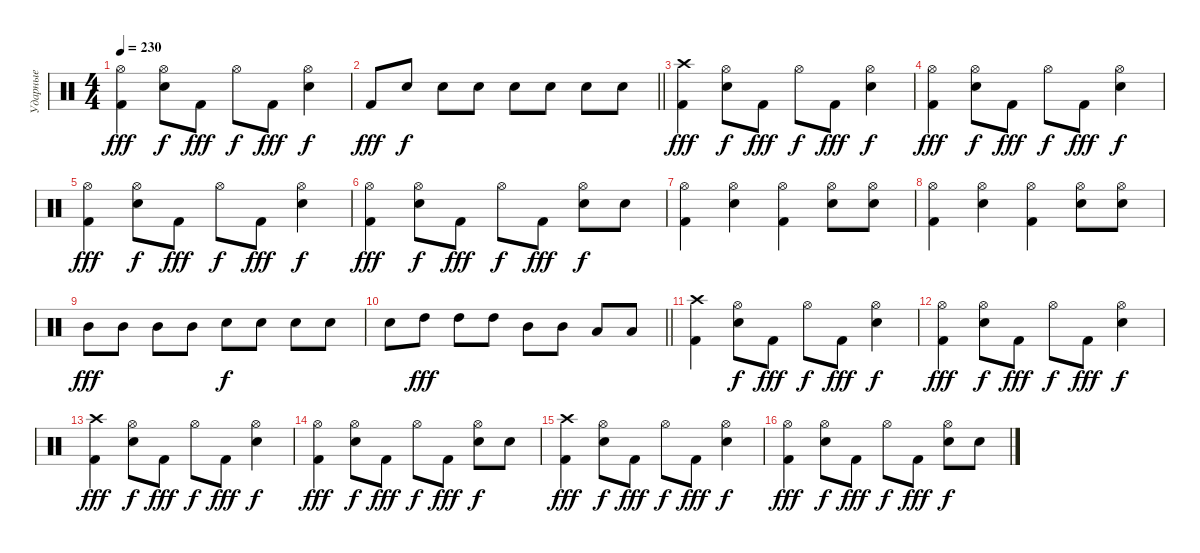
\track ("Ударные" "Ударные") {instrument percussion}
\staff
\articulation defaults
\ts (4 4)
\tempo 230
\clef neutral
\ks c
("Kick (hit) 2" "Hi-Hat (open)").4{dy fff} ("Snare (hit) 2" "Hi-Hat (open)").8{dy f} "Kick (hit) 2".8{dy fff} "Hi-Hat (open)".8{dy f} "Kick (hit) 2".8{dy fff} ("Snare (hit) 2" "Hi-Hat (open)").4{dy f} |
\barLineRight lightlight "Kick (hit) 2".8{dy fff} "Snare (hit) 2".8{dy f} "Snare (hit) 2".8 "Snare (hit) 2".8 "Snare (hit) 2".8 "Snare (hit) 2".8 "Snare (hit) 2".8 "Snare (hit) 2".8
|
("Kick (hit) 2" "Crash high (hit)").4{dy fff} ("Snare (hit) 2" "Hi-Hat (open)").8{dy f} "Kick (hit) 2".8{dy fff} "Hi-Hat (open)".8{dy f} "Kick (hit) 2".8{dy fff} ("Snare (hit) 2" "Hi-Hat (open)").4{dy f} |
("Kick (hit) 2" "Hi-Hat (open)").4{dy fff} ("Snare (hit) 2" "Hi-Hat (open)").8{dy f} "Kick (hit) 2".8{dy fff} "Hi-Hat (open)".8{dy f} "Kick (hit) 2".8{dy fff} ("Snare (hit) 2" "Hi-Hat (open)").4{dy f} |
("Kick (hit) 2" "Hi-Hat (open)").4{dy fff} ("Snare (hit) 2" "Hi-Hat (open)").8{dy f} "Kick (hit) 2".8{dy fff} "Hi-Hat (open)".8{dy f} "Kick (hit) 2".8{dy fff} ("Snare (hit) 2" "Hi-Hat (open)").4{dy f} |
("Kick (hit) 2" "Hi-Hat (open)").4{dy fff} ("Snare (hit) 2" "Hi-Hat (open)").8{dy f} "Kick (hit) 2".8{dy fff} "Hi-Hat (open)".8{dy f} "Kick (hit) 2".8{dy fff} ("Snare (hit) 2" "Hi-Hat (open)").8{dy f} "Snare (hit) 2".8 |
("Kick (hit) 2" "Hi-Hat (open)").4 ("Snare (hit) 2" "Hi-Hat (open)").4 ("Kick (hit) 2" "Hi-Hat (open)").4 ("Snare (hit) 2" "Hi-Hat (open)").8 ("Snare (hit) 2" "Hi-Hat (open)").8 |
("Kick (hit) 2" "Hi-Hat (open)").4 ("Snare (hit) 2" "Hi-Hat (open)").4 ("Kick (hit) 2" "Hi-Hat (open)").4 ("Snare (hit) 2" "Hi-Hat (open)").8 ("Snare (hit) 2" "Hi-Hat (open)").8 |
"Mid Tom (hit)".8{dy fff} "Mid Tom (hit)".8 "Mid Tom (hit)".8 "Mid Tom (hit)".8 "Snare (hit) 2".8{dy f} "Snare (hit) 2".8 "Snare (hit) 2".8 "Snare (hit) 2".8 |
\barLineRight lightlight "Snare (hit) 2".8 "High Tom (hit)".8{dy fff} "High Tom (hit)".8 "High Tom (hit)".8 "Mid Tom (hit)".8 "Mid Tom (hit)".8 "Low Tom (hit)".8 "Low Tom (hit)".8
|
("Kick (hit) 2" "Crash high (hit)").4 ("Snare (hit) 2" "Hi-Hat (open)").8{dy f} "Kick (hit) 2".8{dy fff} "Hi-Hat (open)".8{dy f} "Kick (hit) 2".8{dy fff} ("Snare (hit) 2" "Hi-Hat (open)").4{dy f} |
("Kick (hit) 2" "Hi-Hat (open)").4{dy fff} ("Snare (hit) 2" "Hi-Hat (open)").8{dy f} "Kick (hit) 2".8{dy fff} "Hi-Hat (open)".8{dy f} "Kick (hit) 2".8{dy fff} ("Snare (hit) 2" "Hi-Hat (open)").4{dy f} |
("Kick (hit) 2" "Crash high (hit)").4{dy fff} ("Snare (hit) 2" "Hi-Hat (open)").8{dy f} "Kick (hit) 2".8{dy fff} "Hi-Hat (open)".8{dy f} "Kick (hit) 2".8{dy fff} ("Snare (hit) 2" "Hi-Hat (open)").4{dy f} |
("Kick (hit) 2" "Hi-Hat (open)").4{dy fff} ("Snare (hit) 2" "Hi-Hat (open)").8{dy f} "Kick (hit) 2".8{dy fff} "Hi-Hat (open)".8{dy f} "Kick (hit) 2".8{dy fff} ("Snare (hit) 2" "Hi-Hat (open)").8{dy f} "Snare (hit) 2".8 |
("Kick (hit) 2" "Crash high (hit)").4{dy fff} ("Snare (hit) 2" "Hi-Hat (open)").8{dy f} "Kick (hit) 2".8{dy fff} "Hi-Hat (open)".8{dy f} "Kick (hit) 2".8{dy fff} ("Snare (hit) 2" "Hi-Hat (open)").4{dy f} |
("Kick (hit) 2" "Hi-Hat (open)").4{dy fff} ("Snare (hit) 2" "Hi-Hat (open)").8{dy f} "Kick (hit) 2".8{dy fff} "Hi-Hat (open)".8{dy f} "Kick (hit) 2".8{dy fff} ("Snare (hit) 2" "Hi-Hat (open)").8{dy f} "Snare (hit) 2".8
